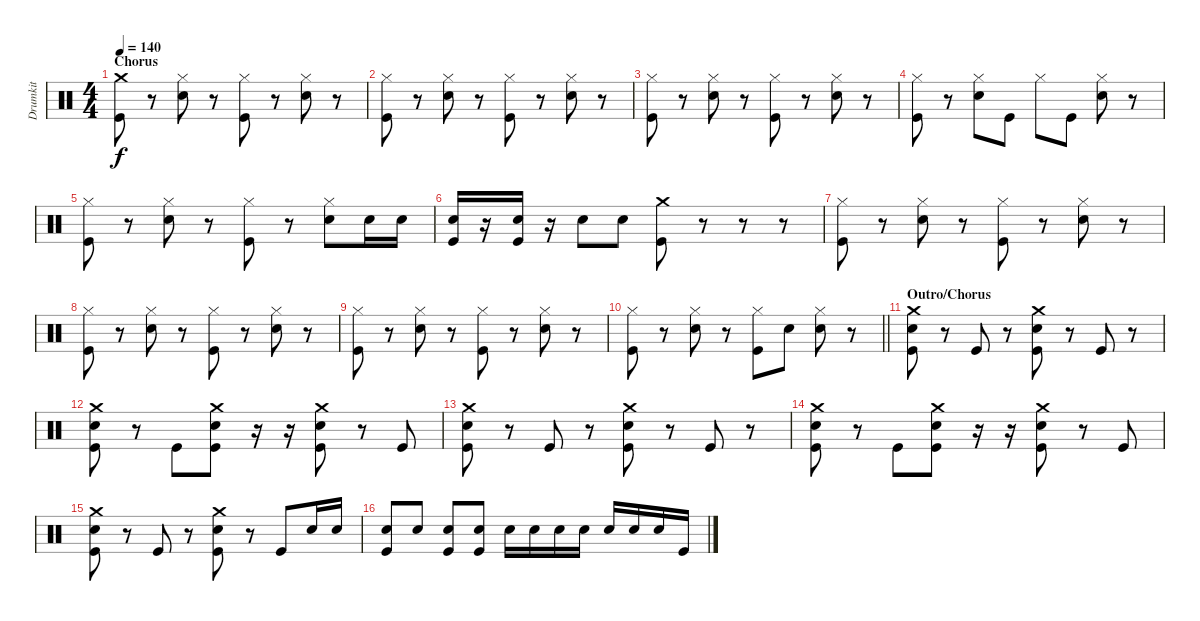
\track ("Drumkit" "Drumkit") {instrument percussion}
\staff {score}
\articulation defaults
\ts (4 4)
\section ("" "Chorus")
\tempo 140
\clef neutral
\ks c
("Crash medium (hit)" "Kick (hit)").8{dy f} r.8 ("Hi-Hat (closed)" "Snare (hit) 2").8 r.8 ("Hi-Hat (closed)" "Kick (hit)").8 r.8 ("Hi-Hat (closed)" "Snare (hit) 2").8 r.8 |
("Hi-Hat (closed)" "Kick (hit)").8 r.8 ("Hi-Hat (closed)" "Snare (hit) 2").8 r.8 ("Hi-Hat (closed)" "Kick (hit)").8 r.8 ("Hi-Hat (closed)" "Snare (hit) 2").8 r.8 |
("Hi-Hat (closed)" "Kick (hit)").8 r.8 ("Hi-Hat (closed)" "Snare (hit) 2").8 r.8 ("Hi-Hat (closed)" "Kick (hit)").8 r.8 ("Hi-Hat (closed)" "Snare (hit) 2").8 r.8 |
("Hi-Hat (closed)" "Kick (hit)").8 r.8 ("Hi-Hat (closed)" "Snare (hit) 2").8 "Kick (hit)".8 "Hi-Hat (closed)".8 "Kick (hit)".8 ("Hi-Hat (closed)" "Snare (hit) 2").8 r.8 |
("Hi-Hat (closed)" "Kick (hit)").8 r.8 ("Hi-Hat (closed)" "Snare (hit) 2").8 r.8 ("Hi-Hat (closed)" "Kick (hit)").8 r.8 ("Hi-Hat (closed)" "Snare (hit) 2").8 "Snare (hit) 2".16 "Snare (hit) 2".16 |
("Snare (hit) 2" "Kick (hit)").16 r.16 ("Snare (hit) 2" "Kick (hit)").16 r.16 "Snare (hit) 2".8 "Snare (hit) 2".8 ("Crash medium (hit)" "Kick (hit)").8 r.8 r.8 r.8 |
("Hi-Hat (closed)" "Kick (hit)").8 r.8 ("Hi-Hat (closed)" "Snare (hit) 2").8 r.8 ("Hi-Hat (closed)" "Kick (hit)").8 r.8 ("Hi-Hat (closed)" "Snare (hit) 2").8 r.8 |
("Hi-Hat (closed)" "Kick (hit)").8 r.8 ("Hi-Hat (closed)" "Snare (hit) 2").8 r.8 ("Hi-Hat (closed)" "Kick (hit)").8 r.8 ("Hi-Hat (closed)" "Snare (hit) 2").8 r.8 |
("Hi-Hat (closed)" "Kick (hit)").8 r.8 ("Hi-Hat (closed)" "Snare (hit) 2").8 r.8 ("Hi-Hat (closed)" "Kick (hit)").8 r.8 ("Hi-Hat (closed)" "Snare (hit) 2").8 r.8 |
\barLineRight lightlight
("Hi-Hat (closed)" "Kick (hit)").8 r.8 ("Hi-Hat (closed)" "Snare (hit) 2").8 r.8 ("Hi-Hat (closed)" "Kick (hit)").8 "Snare (hit) 2".8 ("Hi-Hat (closed)" "Snare (hit) 2").8 r.8 |
\section ("" "Outro/Chorus")
("Crash medium (hit)" "Snare (hit) 2" "Kick (hit)").8 r.8 "Kick (hit)".8 r.8 ("Crash medium (hit)" "Snare (hit) 2" "Kick (hit)").8 r.8 "Kick (hit)".8 r.8 |
("Crash medium (hit)" "Snare (hit) 2" "Kick (hit)").8 r.8 "Kick (hit)".8 ("Crash medium (hit)" "Snare (hit) 2" "Kick (hit)").8 r.16 r.16 ("Crash medium (hit)" "Snare (hit) 2" "Kick (hit)").8 r.8 "Kick (hit)".8 |
("Crash medium (hit)" "Snare (hit) 2" "Kick (hit)").8 r.8 "Kick (hit)".8 r.8 ("Crash medium (hit)" "Snare (hit) 2" "Kick (hit)").8 r.8 "Kick (hit)".8 r.8 |
("Crash medium (hit)" "Snare (hit) 2" "Kick (hit)").8 r.8 "Kick (hit)".8 ("Crash medium (hit)" "Snare (hit) 2" "Kick (hit)").8 r.16 r.16 ("Crash medium (hit)" "Snare (hit) 2" "Kick (hit)").8 r.8 "Kick (hit)".8 |
("Crash medium (hit)" "Snare (hit) 2" "Kick (hit)").8 r.8 "Kick (hit)".8 r.8 ("Crash medium (hit)" "Snare (hit) 2" "Kick (hit)").8 r.8 "Kick (hit)".8 "Snare (hit) 2".16 "Snare (hit) 2".16 |
("Snare (hit) 2" "Kick (hit)").8 "Snare (hit) 2".8 ("Snare (hit) 2" "Kick (hit)").8 ("Snare (hit) 2" "Kick (hit)").8 "Snare (hit) 2".16 "Snare (hit) 2".16 "Snare (hit) 2".16 "Snare (hit) 2".16 "Snare (hit) 2".16 "Snare (hit) 2".16 "Snare (hit) 2".16 "Kick (hit)".16
